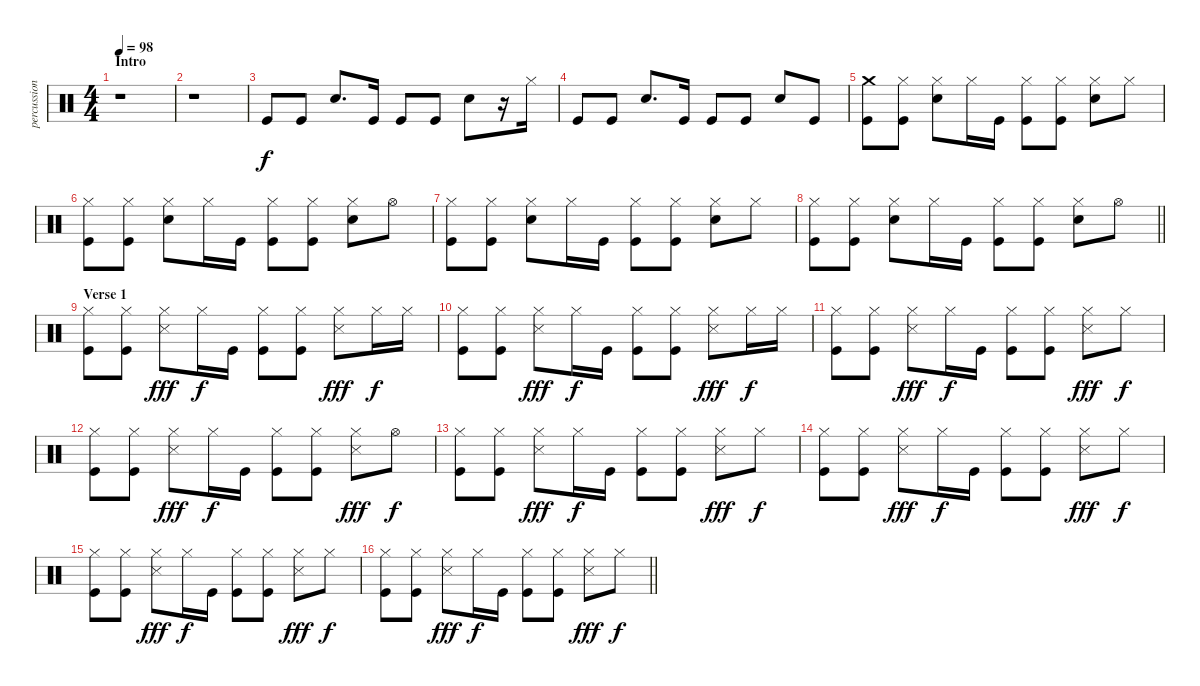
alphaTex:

\track ("percussion" "percussion") {instrument percussion}
\staff {score}
\articulation defaults
\ts (4 4)
\section ("" "Intro")
\tempo 98
\clef neutral
\ks c
r.1{dy f} |
r.1 |
"Kick (hit)".8 "Kick (hit)".8 "Electric Snare (hit)".8{d} "Kick (hit)".16 "Kick (hit)".8 "Kick (hit)".8 "Electric Snare (hit)".8 r.16 "Hi-Hat (closed)".16 |
"Kick (hit)".8 "Kick (hit)".8 "Electric Snare (hit)".8{d} "Kick (hit)".16 "Kick (hit)".8 "Kick (hit)".8 "Electric Snare (hit)".8 "Kick (hit)".8 |
("Crash medium (hit)" "Kick (hit)").8 ("Hi-Hat (closed)" "Kick (hit)").8 ("Electric Snare (hit)" "Hi-Hat (closed)").8 "Hi-Hat (closed)".16 "Kick (hit)".16 ("Hi-Hat (closed)" "Kick (hit)").8 ("Hi-Hat (closed)" "Kick (hit)").8 ("Electric Snare (hit)" "Hi-Hat (closed)").8 "Hi-Hat (closed)".8 |
("Hi-Hat (closed)" "Kick (hit)").8 ("Hi-Hat (closed)" "Kick (hit)").8 ("Electric Snare (hit)" "Hi-Hat (closed)").8 "Hi-Hat (closed)".16 "Kick (hit)".16 ("Hi-Hat (closed)" "Kick (hit)").8 ("Hi-Hat (closed)" "Kick (hit)").8 ("Electric Snare (hit)" "Hi-Hat (closed)").8 "Hi-Hat (open)".8 |
("Hi-Hat (closed)" "Kick (hit)").8 ("Hi-Hat (closed)" "Kick (hit)").8 ("Electric Snare (hit)" "Hi-Hat (closed)").8 "Hi-Hat (closed)".16 "Kick (hit)".16 ("Hi-Hat (closed)" "Kick (hit)").8 ("Hi-Hat (closed)" "Kick (hit)").8 ("Electric Snare (hit)" "Hi-Hat (closed)").8 "Hi-Hat (closed)".8 |
\barLineRight lightlight
("Hi-Hat (closed)" "Kick (hit)").8 ("Hi-Hat (closed)" "Kick (hit)").8 ("Electric Snare (hit)" "Hi-Hat (closed)").8 "Hi-Hat (closed)".16 "Kick (hit)".16 ("Hi-Hat (closed)" "Kick (hit)").8 ("Hi-Hat (closed)" "Kick (hit)").8 ("Electric Snare (hit)" "Hi-Hat (closed)").8 "Hi-Hat (open)".8 |
\section ("" "Verse 1")
("Hi-Hat (closed)" "Kick (hit)").8 ("Hi-Hat (closed)" "Kick (hit)").8 ("Snare (side stick) 3" "Hi-Hat (closed)").8{dy fff} "Hi-Hat (closed)".16{dy f} "Kick (hit)".16 ("Hi-Hat (closed)" "Kick (hit)").8 ("Hi-Hat (closed)" "Kick (hit)").8 ("Snare (side stick) 3" "Hi-Hat (closed)").8{dy fff} "Hi-Hat (closed)".16{dy f} "Hi-Hat (closed)".16 |
("Hi-Hat (closed)" "Kick (hit)").8 ("Hi-Hat (closed)" "Kick (hit)").8 ("Snare (side stick) 3" "Hi-Hat (closed)").8{dy fff} "Hi-Hat (closed)".16{dy f} "Kick (hit)".16 ("Hi-Hat (closed)" "Kick (hit)").8 ("Hi-Hat (closed)" "Kick (hit)").8 ("Snare (side stick) 3" "Hi-Hat (closed)").8{dy fff} "Hi-Hat (closed)".16{dy f} "Hi-Hat (closed)".16 |
("Hi-Hat (closed)" "Kick (hit)").8 ("Hi-Hat (closed)" "Kick (hit)").8 ("Snare (side stick) 3" "Hi-Hat (closed)").8{dy fff} "Hi-Hat (closed)".16{dy f} "Kick (hit)".16 ("Hi-Hat (closed)" "Kick (hit)").8 ("Hi-Hat (closed)" "Kick (hit)").8 ("Snare (side stick) 3" "Hi-Hat (closed)").8{dy fff} "Hi-Hat (closed)".8{dy f} |
("Hi-Hat (closed)" "Kick (hit)").8 ("Hi-Hat (closed)" "Kick (hit)").8 ("Snare (side stick) 3" "Hi-Hat (closed)").8{dy fff} "Hi-Hat (closed)".16{dy f} "Kick (hit)".16 ("Hi-Hat (closed)" "Kick (hit)").8 ("Hi-Hat (closed)" "Kick (hit)").8 ("Snare (side stick) 3" "Hi-Hat (closed)").8{dy fff} "Hi-Hat (open)".8{dy f} |
("Hi-Hat (closed)" "Kick (hit)").8 ("Hi-Hat (closed)" "Kick (hit)").8 ("Snare (side stick) 3" "Hi-Hat (closed)").8{dy fff} "Hi-Hat (closed)".16{dy f} "Kick (hit)".16 ("Hi-Hat (closed)" "Kick (hit)").8 ("Hi-Hat (closed)" "Kick (hit)").8 ("Snare (side stick) 3" "Hi-Hat (closed)").8{dy fff} "Hi-Hat (closed)".8{dy f} |
("Hi-Hat (closed)" "Kick (hit)").8 ("Hi-Hat (closed)" "Kick (hit)").8 ("Snare (side stick) 3" "Hi-Hat (closed)").8{dy fff} "Hi-Hat (closed)".16{dy f} "Kick (hit)".16 ("Hi-Hat (closed)" "Kick (hit)").8 ("Hi-Hat (closed)" "Kick (hit)").8 ("Snare (side stick) 3" "Hi-Hat (closed)").8{dy fff} "Hi-Hat (closed)".8{dy f} |
("Hi-Hat (closed)" "Kick (hit)").8 ("Hi-Hat (closed)" "Kick (hit)").8 ("Snare (side stick) 3" "Hi-Hat (closed)").8{dy fff} "Hi-Hat (closed)".16{dy f} "Kick (hit)".16 ("Hi-Hat (closed)" "Kick (hit)").8 ("Hi-Hat (closed)" "Kick (hit)").8 ("Snare (side stick) 3" "Hi-Hat (closed)").8{dy fff} "Hi-Hat (closed)".8{dy f} |
\barLineRight lightlight
("Hi-Hat (closed)" "Kick (hit)").8 ("Hi-Hat (closed)" "Kick (hit)").8 ("Snare (side stick) 3" "Hi-Hat (closed)").8{dy fff} "Hi-Hat (closed)".16{dy f} "Kick (hit)".16 ("Hi-Hat (closed)" "Kick (hit)").8 ("Hi-Hat (closed)" "Kick (hit)").8 ("Snare (side stick) 3" "Hi-Hat (closed)").8{dy fff} "Hi-Hat (closed)".8{dy f}
